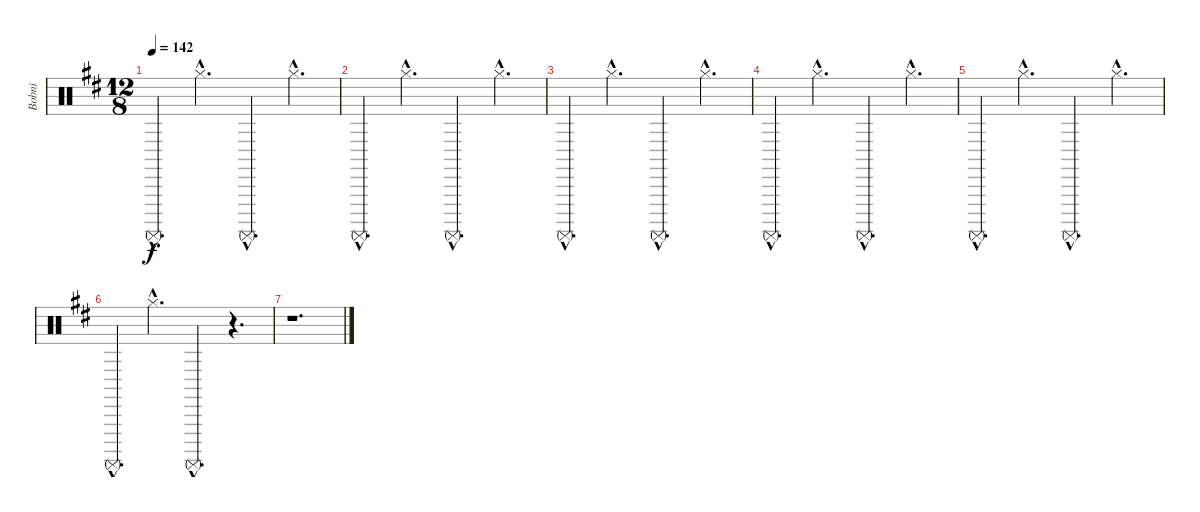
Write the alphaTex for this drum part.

\track ("Bobni" "Bobni") {instrument percussion}
\staff {score}
\articulation defaults
\ts (12 8)
\tempo 142
\clef neutral
\ks d "Surdo (mute)"{hac}.4{d dy f} "Hi-Hat (closed)"{hac}.4{d} "Surdo (mute)"{hac}.4{d} "Hi-Hat (closed)"{hac}.4{d}
|
"Surdo (mute)"{hac}.4{d} "Hi-Hat (closed)"{hac}.4{d} "Surdo (mute)"{hac}.4{d} "Hi-Hat (closed)"{hac}.4{d} |
"Surdo (mute)"{hac}.4{d} "Hi-Hat (closed)"{hac}.4{d} "Surdo (mute)"{hac}.4{d} "Hi-Hat (closed)"{hac}.4{d} |
"Surdo (mute)"{hac}.4{d} "Hi-Hat (closed)"{hac}.4{d} "Surdo (mute)"{hac}.4{d} "Hi-Hat (closed)"{hac}.4{d} |
"Surdo (mute)"{hac}.4{d} "Hi-Hat (closed)"{hac}.4{d} "Surdo (mute)"{hac}.4{d} "Hi-Hat (closed)"{hac}.4{d} |
"Surdo (mute)"{hac}.4{d} "Hi-Hat (closed)"{hac}.4{d} "Surdo (mute)"{hac}.4{d} r.4{d} |
r.1{d}
